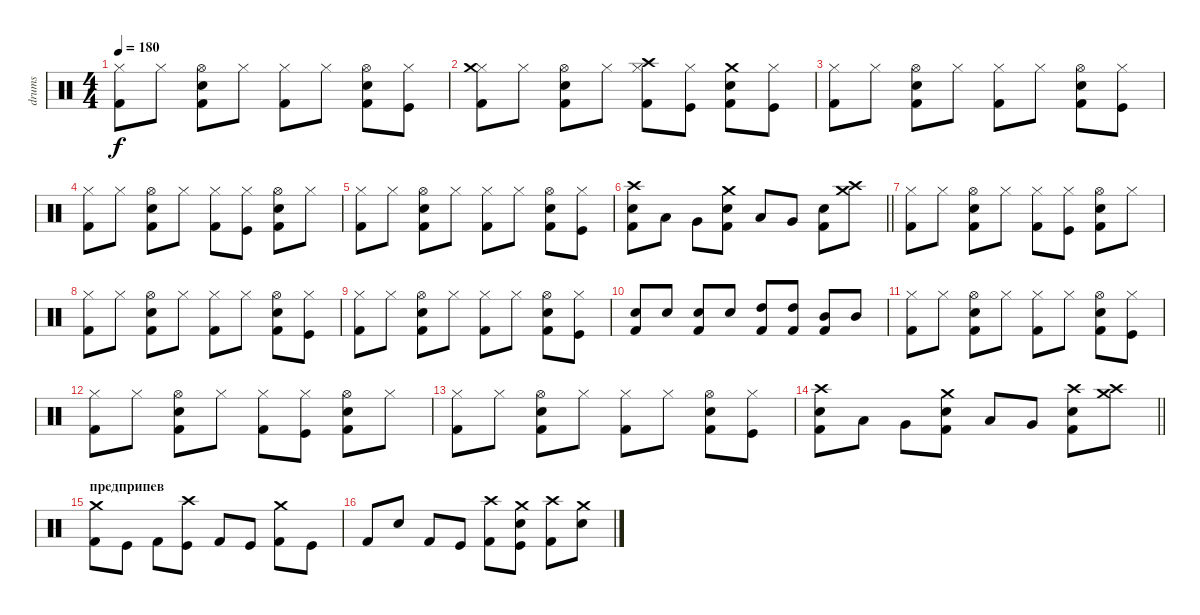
\track ("drums" "drums") {instrument percussion}
\staff {score}
\articulation defaults
\ts (4 4)
\tempo 180
\clef neutral
\ks c
("Hi-Hat (closed)" "Kick (hit) 2").8{dy f} "Hi-Hat (closed)".8 ("Hi-Hat (open)" "Electric Snare (hit)" "Kick (hit) 2").8 "Hi-Hat (closed)".8 ("Hi-Hat (closed)" "Kick (hit) 2").8 "Hi-Hat (closed)".8 ("Hi-Hat (open)" "Electric Snare (hit)" "Kick (hit) 2").8 ("Hi-Hat (closed)" "Kick (hit)").8 |
("Hi-Hat (closed)" "Crash medium (hit)" "Kick (hit) 2").8 "Hi-Hat (closed)".8 ("Hi-Hat (open)" "Electric Snare (hit)" "Kick (hit) 2").8 "Hi-Hat (closed)".8 ("Hi-Hat (closed)" "Kick (hit) 2" "Crash high (hit)").8 ("Hi-Hat (closed)" "Kick (hit)").8 ("Crash medium (hit)" "Electric Snare (hit)" "Kick (hit) 2").8 ("Hi-Hat (closed)" "Kick (hit)").8 |
("Hi-Hat (closed)" "Kick (hit) 2").8 "Hi-Hat (closed)".8 ("Hi-Hat (open)" "Electric Snare (hit)" "Kick (hit) 2").8 "Hi-Hat (closed)".8 ("Hi-Hat (closed)" "Kick (hit) 2").8 "Hi-Hat (closed)".8 ("Hi-Hat (open)" "Electric Snare (hit)" "Kick (hit) 2").8 ("Hi-Hat (closed)" "Kick (hit)").8 |
("Hi-Hat (closed)" "Kick (hit) 2").8 "Hi-Hat (closed)".8 ("Hi-Hat (open)" "Electric Snare (hit)" "Kick (hit) 2").8 "Hi-Hat (closed)".8 ("Hi-Hat (closed)" "Kick (hit) 2").8 ("Hi-Hat (closed)" "Kick (hit)").8 ("Hi-Hat (open)" "Electric Snare (hit)" "Kick (hit) 2").8 "Hi-Hat (closed)".8 |
("Hi-Hat (closed)" "Kick (hit) 2").8 "Hi-Hat (closed)".8 ("Hi-Hat (open)" "Electric Snare (hit)" "Kick (hit) 2").8 "Hi-Hat (closed)".8 ("Hi-Hat (closed)" "Kick (hit) 2").8 "Hi-Hat (closed)".8 ("Hi-Hat (open)" "Electric Snare (hit)" "Kick (hit) 2").8 ("Hi-Hat (closed)" "Kick (hit)").8 |
\barLineRight lightlight
("Crash high (hit)" "Electric Snare (hit)" "Kick (hit) 2").8 "Low Tom (hit)".8 "Very Low Tom (hit)".8 ("Crash medium (hit)" "Electric Snare (hit)" "Kick (hit) 2").8 "Low Tom (hit)".8 "Very Low Tom (hit)".8 ("Electric Snare (hit)" "Kick (hit) 2").8 ("Crash medium (hit)" "Crash high (hit)").8 |
("Hi-Hat (closed)" "Kick (hit) 2").8 "Hi-Hat (closed)".8 ("Hi-Hat (open)" "Electric Snare (hit)" "Kick (hit) 2").8 "Hi-Hat (closed)".8 ("Hi-Hat (closed)" "Kick (hit) 2").8 ("Hi-Hat (closed)" "Kick (hit)").8 ("Hi-Hat (open)" "Electric Snare (hit)" "Kick (hit) 2").8 "Hi-Hat (closed)".8 |
("Hi-Hat (closed)" "Kick (hit) 2").8 "Hi-Hat (closed)".8 ("Hi-Hat (open)" "Electric Snare (hit)" "Kick (hit) 2").8 "Hi-Hat (closed)".8 ("Hi-Hat (closed)" "Kick (hit) 2").8 "Hi-Hat (closed)".8 ("Hi-Hat (open)" "Electric Snare (hit)" "Kick (hit) 2").8 ("Hi-Hat (closed)" "Kick (hit)").8 |
("Hi-Hat (closed)" "Kick (hit) 2").8 "Hi-Hat (closed)".8 ("Hi-Hat (open)" "Electric Snare (hit)" "Kick (hit) 2").8 "Hi-Hat (closed)".8 ("Hi-Hat (closed)" "Kick (hit) 2").8 "Hi-Hat (closed)".8 ("Hi-Hat (open)" "Electric Snare (hit)" "Kick (hit) 2").8 ("Hi-Hat (closed)" "Kick (hit)").8 |
("Snare (hit) 2" "Kick (hit) 2").8 "Snare (hit) 2".8 ("Snare (hit) 2" "Kick (hit) 2").8 "Snare (hit) 2".8 ("High Tom (hit)" "Kick (hit) 2").8 ("High Tom (hit)" "Kick (hit) 2").8 ("Mid Tom (hit)" "Kick (hit) 2").8 "Mid Tom (hit)".8 |
("Hi-Hat (closed)" "Kick (hit) 2").8 "Hi-Hat (closed)".8 ("Hi-Hat (open)" "Electric Snare (hit)" "Kick (hit) 2").8 "Hi-Hat (closed)".8 ("Hi-Hat (closed)" "Kick (hit) 2").8 "Hi-Hat (closed)".8 ("Hi-Hat (open)" "Electric Snare (hit)" "Kick (hit) 2").8 ("Hi-Hat (closed)" "Kick (hit)").8 |
("Hi-Hat (closed)" "Kick (hit) 2").8 "Hi-Hat (closed)".8 ("Hi-Hat (open)" "Electric Snare (hit)" "Kick (hit) 2").8 "Hi-Hat (closed)".8 ("Hi-Hat (closed)" "Kick (hit) 2").8 ("Hi-Hat (closed)" "Kick (hit)").8 ("Hi-Hat (open)" "Electric Snare (hit)" "Kick (hit) 2").8 "Hi-Hat (closed)".8 |
("Hi-Hat (closed)" "Kick (hit) 2").8 "Hi-Hat (closed)".8 ("Hi-Hat (open)" "Electric Snare (hit)" "Kick (hit) 2").8 "Hi-Hat (closed)".8 ("Hi-Hat (closed)" "Kick (hit) 2").8 "Hi-Hat (closed)".8 ("Hi-Hat (open)" "Electric Snare (hit)" "Kick (hit) 2").8 ("Hi-Hat (closed)" "Kick (hit)").8 |
\barLineRight lightlight
("Crash high (hit)" "Electric Snare (hit)" "Kick (hit) 2").8 "Low Tom (hit)".8 "Very Low Tom (hit)".8 ("Crash medium (hit)" "Electric Snare (hit)" "Kick (hit) 2").8 "Low Tom (hit)".8 "Very Low Tom (hit)".8 ("Crash high (hit)" "Electric Snare (hit)" "Kick (hit) 2").8 ("Crash medium (hit)" "Crash high (hit)").8 |
\section ("" "предприпев")
("Kick (hit) 2" "Crash medium (hit)").8 "Kick (hit)".8 "Kick (hit) 2".8 ("Kick (hit)" "Crash high (hit)").8 "Kick (hit) 2".8 "Kick (hit)".8 ("Kick (hit) 2" "Crash medium (hit)").8 "Kick (hit)".8 |
"Kick (hit) 2".8 "Electric Snare (hit)".8 "Kick (hit) 2".8 "Kick (hit)".8 ("Kick (hit) 2" "Crash high (hit)").8 ("Electric Snare (hit)" "Kick (hit)" "Crash medium (hit)").8 ("Kick (hit) 2" "Crash high (hit)").8 ("Electric Snare (hit)" "Crash medium (hit)").8
